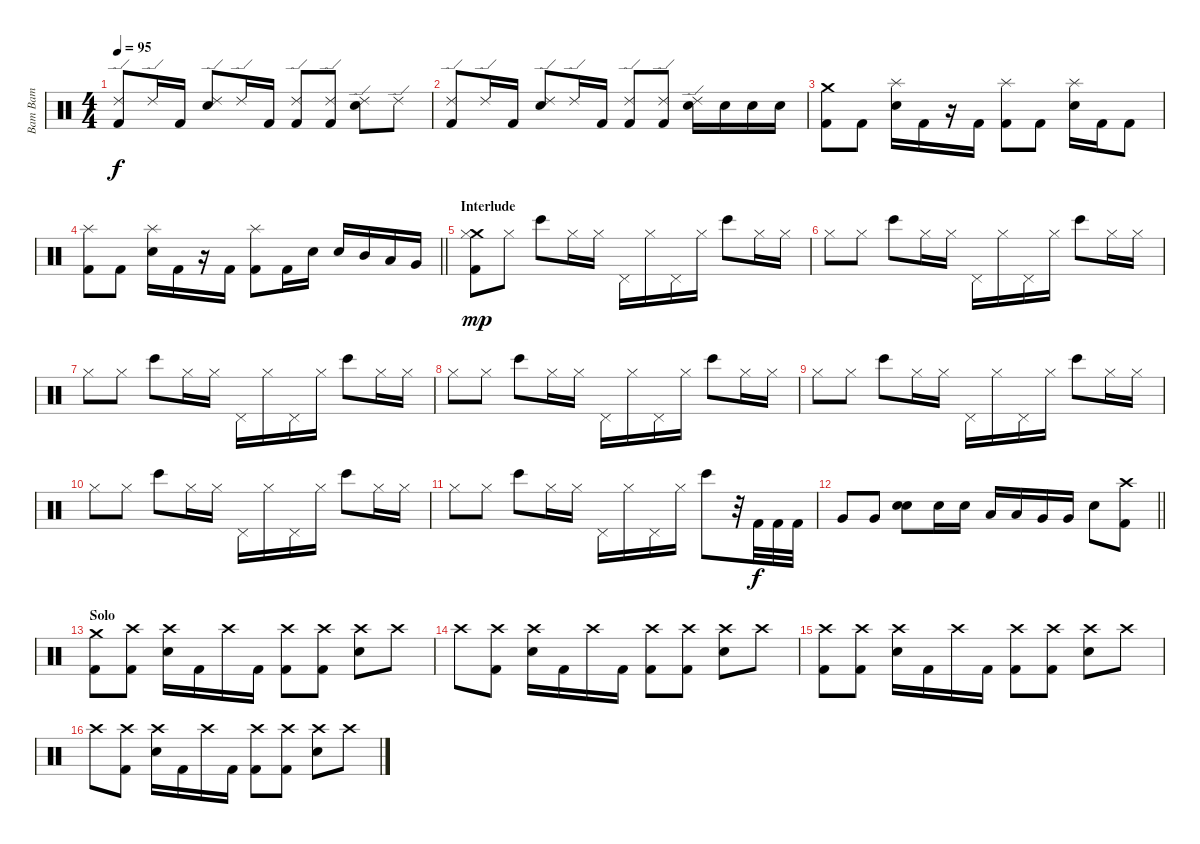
\track ("Bam Bam" "Bam Bam") {instrument percussion}
\staff {score}
\articulation defaults
\ts (4 4)
\tempo 95
\clef neutral
\ks c
("Ride (edge) 2" "Kick (hit) 2").8{dy f} "Ride (edge) 2".16 "Kick (hit) 2".16 ("Ride (edge) 2" "Electric Snare (hit)").8 "Ride (edge) 2".16 "Kick (hit) 2".16 ("Ride (edge) 2" "Kick (hit) 2").8 ("Ride (edge) 2" "Kick (hit) 2").8 ("Ride (edge) 2" "Electric Snare (hit)").8 "Ride (edge) 2".8 |
("Ride (edge) 2" "Kick (hit) 2").8 "Ride (edge) 2".16 "Kick (hit) 2".16 ("Ride (edge) 2" "Electric Snare (hit)").8 "Ride (edge) 2".16 "Kick (hit) 2".16 ("Ride (edge) 2" "Kick (hit) 2").8 ("Ride (edge) 2" "Kick (hit) 2").8 ("Ride (edge) 2" "Electric Snare (hit)").16 "Electric Snare (hit)".16 "Electric Snare (hit)".16 "Electric Snare (hit)".16 |
("Crash medium (hit)" "Kick (hit) 2").8 "Kick (hit) 2".8 ("Splash (hit)" "Electric Snare (hit)").16 "Kick (hit) 2".16 r.16 "Kick (hit) 2".16 ("Splash (hit)" "Kick (hit) 2").8 "Kick (hit) 2".8 ("Splash (hit)" "Electric Snare (hit)").16 "Kick (hit) 2".16 "Kick (hit) 2".8 |
\barLineRight lightlight
("Splash (hit)" "Kick (hit) 2").8 "Kick (hit) 2".8 ("Splash (hit)" "Electric Snare (hit)").16 "Kick (hit) 2".16 r.16 "Kick (hit) 2".16 ("Splash (hit)" "Kick (hit) 2").8 "Kick (hit) 2".16 "Electric Snare (hit)".16 "Electric Snare (hit)".16 "Mid Tom (hit)".16 "Low Tom (hit)".16 "Very Low Tom (hit)".16 |
\section ("" "Interlude")
("Crash medium (hit)" "Hi-Hat (closed)" "Kick (hit) 2").8{dy mp} "Hi-Hat (closed)".8 "Bongo High (hit)".8 "Hi-Hat (closed)".16 "Hi-Hat (closed)".16 "Pedal Hi-Hat (hit)".16 "Hi-Hat (closed)".16 "Pedal Hi-Hat (hit)".16 "Hi-Hat (closed)".16 "Bongo High (hit)".8 "Hi-Hat (closed)".16 "Hi-Hat (closed)".16 |
"Hi-Hat (closed)".8 "Hi-Hat (closed)".8 "Bongo High (hit)".8 "Hi-Hat (closed)".16 "Hi-Hat (closed)".16 "Pedal Hi-Hat (hit)".16 "Hi-Hat (closed)".16 "Pedal Hi-Hat (hit)".16 "Hi-Hat (closed)".16 "Bongo High (hit)".8 "Hi-Hat (closed)".16 "Hi-Hat (closed)".16 |
"Hi-Hat (closed)".8 "Hi-Hat (closed)".8 "Bongo High (hit)".8 "Hi-Hat (closed)".16 "Hi-Hat (closed)".16 "Pedal Hi-Hat (hit)".16 "Hi-Hat (closed)".16 "Pedal Hi-Hat (hit)".16 "Hi-Hat (closed)".16 "Bongo High (hit)".8 "Hi-Hat (closed)".16 "Hi-Hat (closed)".16 |
"Hi-Hat (closed)".8 "Hi-Hat (closed)".8 "Bongo High (hit)".8 "Hi-Hat (closed)".16 "Hi-Hat (closed)".16 "Pedal Hi-Hat (hit)".16 "Hi-Hat (closed)".16 "Pedal Hi-Hat (hit)".16 "Hi-Hat (closed)".16 "Bongo High (hit)".8 "Hi-Hat (closed)".16 "Hi-Hat (closed)".16 |
"Hi-Hat (closed)".8 "Hi-Hat (closed)".8 "Bongo High (hit)".8 "Hi-Hat (closed)".16 "Hi-Hat (closed)".16 "Pedal Hi-Hat (hit)".16 "Hi-Hat (closed)".16 "Pedal Hi-Hat (hit)".16 "Hi-Hat (closed)".16 "Bongo High (hit)".8 "Hi-Hat (closed)".16 "Hi-Hat (closed)".16 |
"Hi-Hat (closed)".8 "Hi-Hat (closed)".8 "Bongo High (hit)".8 "Hi-Hat (closed)".16 "Hi-Hat (closed)".16 "Pedal Hi-Hat (hit)".16 "Hi-Hat (closed)".16 "Pedal Hi-Hat (hit)".16 "Hi-Hat (closed)".16 "Bongo High (hit)".8 "Hi-Hat (closed)".16 "Hi-Hat (closed)".16 |
"Hi-Hat (closed)".8 "Hi-Hat (closed)".8 "Bongo High (hit)".8 "Hi-Hat (closed)".16 "Hi-Hat (closed)".16 "Pedal Hi-Hat (hit)".16 "Hi-Hat (closed)".16 "Pedal Hi-Hat (hit)".16 "Hi-Hat (closed)".16 "Bongo High (hit)".8 r.32 "Kick (hit) 2".32{dy f} "Kick (hit) 2".32 "Kick (hit) 2".32 |
\barLineRight lightlight "Very Low Tom (hit)".8 "Very Low Tom (hit)".8
("Electric Snare (hit)" "Electric Snare (hit)").8 "Electric Snare (hit)".16 "Electric Snare (hit)".16 "Low Tom (hit)".16 "Low Tom (hit)".16 "Very Low Tom (hit)".16 "Very Low Tom (hit)".16 "Electric Snare (hit)".8 ("Crash high (hit)" "Kick (hit) 2").8 |
\section ("" "Solo")
("Crash medium (hit)" "Kick (hit) 2").8 ("Crash high (hit)" "Kick (hit) 2").8 ("Crash high (hit)" "Electric Snare (hit)").16 "Kick (hit) 2".16 "Crash high (hit)".16 "Kick (hit) 2".16 ("Crash high (hit)" "Kick (hit) 2").8 ("Crash high (hit)" "Kick (hit) 2").8 ("Crash high (hit)" "Electric Snare (hit)").8 "Crash high (hit)".8 |
"Crash high (hit)".8 ("Crash high (hit)" "Kick (hit) 2").8 ("Crash high (hit)" "Electric Snare (hit)").16 "Kick (hit) 2".16 "Crash high (hit)".16 "Kick (hit) 2".16 ("Crash high (hit)" "Kick (hit) 2").8 ("Crash high (hit)" "Kick (hit) 2").8 ("Crash high (hit)" "Electric Snare (hit)").8 "Crash high (hit)".8 |
("Crash high (hit)" "Kick (hit) 2").8 ("Crash high (hit)" "Kick (hit) 2").8 ("Crash high (hit)" "Electric Snare (hit)").16 "Kick (hit) 2".16 "Crash high (hit)".16 "Kick (hit) 2".16 ("Crash high (hit)" "Kick (hit) 2").8 ("Crash high (hit)" "Kick (hit) 2").8 ("Crash high (hit)" "Electric Snare (hit)").8 "Crash high (hit)".8 |
"Crash high (hit)".8 ("Crash high (hit)" "Kick (hit) 2").8 ("Crash high (hit)" "Electric Snare (hit)").16 "Kick (hit) 2".16 "Crash high (hit)".16 "Kick (hit) 2".16 ("Crash high (hit)" "Kick (hit) 2").8 ("Crash high (hit)" "Kick (hit) 2").8 ("Crash high (hit)" "Electric Snare (hit)").8 "Crash high (hit)".8
